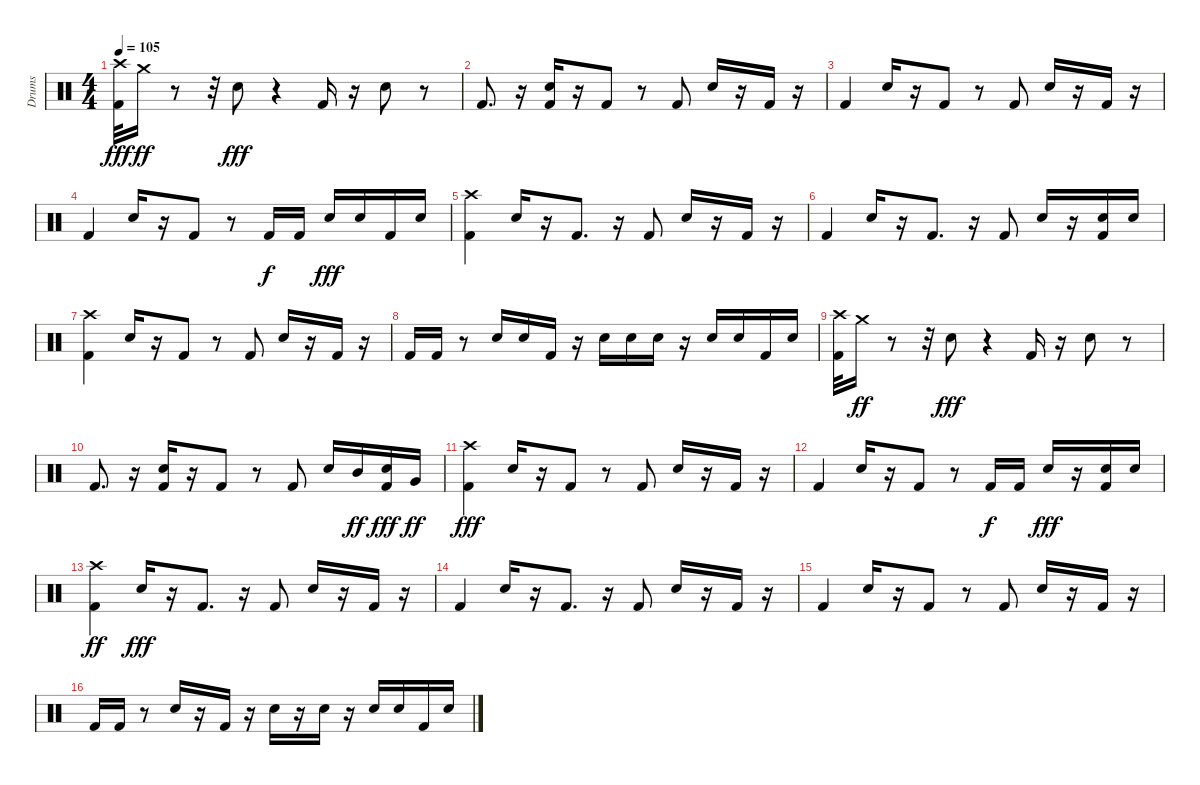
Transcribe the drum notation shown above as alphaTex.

\track ("Drums" "Drums") {instrument percussion}
\staff {score}
\articulation defaults
\ts (4 4)
\tempo 105
\clef neutral
\ks c
("Kick (hit) 2" "Crash high (hit)").32{dy fff} "Crash medium (hit)".16{dy ff} r.8 r.32 "Snare (hit) 2".8{dy fff} r.4 "Kick (hit) 2".16 r.16 "Snare (hit) 2".8 r.8 |
"Kick (hit) 2".8{d} r.16 ("Snare (hit) 2" "Kick (hit) 2").16 r.16 "Kick (hit) 2".8 r.8 "Kick (hit) 2".8 "Snare (hit) 2".16 r.16 "Kick (hit) 2".16 r.16 |
"Kick (hit) 2".4 "Snare (hit) 2".16 r.16 "Kick (hit) 2".8 r.8 "Kick (hit) 2".8 "Snare (hit) 2".16 r.16 "Kick (hit) 2".16 r.16 |
"Kick (hit) 2".4 "Snare (hit) 2".16 r.16 "Kick (hit) 2".8 r.8 "Kick (hit) 2".16{dy f} "Kick (hit) 2".16 "Snare (hit) 2".16{dy fff} "Snare (hit) 2".16 "Kick (hit) 2".16 "Snare (hit) 2".16 |
("Crash high (hit)" "Kick (hit) 2").4 "Snare (hit) 2".16 r.16 "Kick (hit) 2".8{d} r.16 "Kick (hit) 2".8 "Snare (hit) 2".16 r.16 "Kick (hit) 2".16 r.16 |
"Kick (hit) 2".4 "Snare (hit) 2".16 r.16 "Kick (hit) 2".8{d} r.16 "Kick (hit) 2".8 "Snare (hit) 2".16 r.16 ("Snare (hit) 2" "Kick (hit) 2").16 "Snare (hit) 2".16 |
("Crash high (hit)" "Kick (hit) 2").4 "Snare (hit) 2".16 r.16 "Kick (hit) 2".8 r.8 "Kick (hit) 2".8 "Snare (hit) 2".16 r.16 "Kick (hit) 2".16 r.16 |
"Kick (hit) 2".16 "Kick (hit) 2".16 r.8 "Snare (hit) 2".16 "Snare (hit) 2".16 "Kick (hit) 2".16 r.16 "Snare (hit) 2".16 "Snare (hit) 2".16 "Snare (hit) 2".16 r.16 "Snare (hit) 2".16 "Snare (hit) 2".16 "Kick (hit) 2".16 "Snare (hit) 2".16 |
("Kick (hit) 2" "Crash high (hit)").32 "Crash medium (hit)".16{dy ff} r.8 r.32 "Snare (hit) 2".8{dy fff} r.4 "Kick (hit) 2".16 r.16 "Snare (hit) 2".8 r.8 |
"Kick (hit) 2".8{d} r.16 ("Snare (hit) 2" "Kick (hit) 2").16 r.16 "Kick (hit) 2".8 r.8 "Kick (hit) 2".8 "Snare (hit) 2".16 "Mid Tom (hit)".16{dy ff} ("Snare (hit) 2" "Kick (hit) 2").16{dy fff} "Very Low Tom (hit)".16{dy ff} |
("Crash high (hit)" "Kick (hit) 2").4{dy fff} "Snare (hit) 2".16 r.16 "Kick (hit) 2".8 r.8 "Kick (hit) 2".8 "Snare (hit) 2".16 r.16 "Kick (hit) 2".16 r.16 |
"Kick (hit) 2".4 "Snare (hit) 2".16 r.16 "Kick (hit) 2".8 r.8 "Kick (hit) 2".16{dy f} "Kick (hit) 2".16 "Snare (hit) 2".16{dy fff} r.16 ("Snare (hit) 2" "Kick (hit) 2").16 "Snare (hit) 2".16 |
("Crash high (hit)" "Kick (hit) 2").4{dy ff} "Snare (hit) 2".16{dy fff} r.16 "Kick (hit) 2".8{d} r.16 "Kick (hit) 2".8 "Snare (hit) 2".16 r.16 "Kick (hit) 2".16 r.16 |
"Kick (hit) 2".4 "Snare (hit) 2".16 r.16 "Kick (hit) 2".8{d} r.16 "Kick (hit) 2".8 "Snare (hit) 2".16 r.16 "Kick (hit) 2".16 r.16 |
"Kick (hit) 2".4 "Snare (hit) 2".16 r.16 "Kick (hit) 2".8 r.8 "Kick (hit) 2".8 "Snare (hit) 2".16 r.16 "Kick (hit) 2".16 r.16 |
"Kick (hit) 2".16 "Kick (hit) 2".16 r.8 "Snare (hit) 2".16 r.16 "Kick (hit) 2".16 r.16 "Snare (hit) 2".16 r.16 "Snare (hit) 2".16 r.16 "Snare (hit) 2".16 "Snare (hit) 2".16 "Kick (hit) 2".16 "Snare (hit) 2".16
